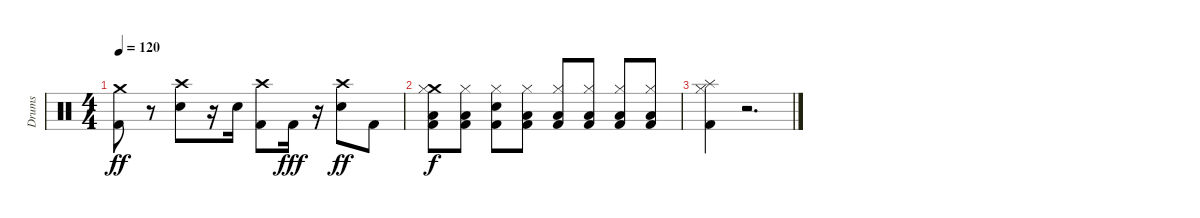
\track ("Drums" "Drums") {instrument percussion}
\staff {score}
\articulation defaults
\ts (4 4)
\tempo 120
\clef neutral
\ks c
("Crash medium (hit)" "Kick (hit) 2").8{dy ff} r.8 ("Crash high (hit)" "Snare (hit) 2").8 r.16 "Snare (hit) 2".16 ("Crash high (hit)" "Kick (hit) 2").8 "Kick (hit) 2".16{dy fff} r.16 ("Crash high (hit)" "Snare (hit) 2").8{dy ff} "Kick (hit) 2".8 |
("Crash medium (hit)" "Hi-Hat (closed)" "Low Floor Tom (hit)" "Kick (hit) 2").8{dy f} ("Hi-Hat (closed)" "Low Floor Tom (hit)" "Kick (hit) 2").8 ("Hi-Hat (closed)" "Snare (hit)" "Kick (hit) 2").8 ("Hi-Hat (closed)" "Low Floor Tom (hit)" "Kick (hit) 2").8 ("Hi-Hat (closed)" "Low Floor Tom (hit)" "Kick (hit) 2").8 ("Hi-Hat (closed)" "Low Floor Tom (hit)" "Kick (hit) 2").8 ("Hi-Hat (closed)" "Low Floor Tom (hit)" "Kick (hit) 2").8 ("Hi-Hat (closed)" "Low Floor Tom (hit)" "Kick (hit) 2").8 |
("Splash (hit)" "Hi-Hat (closed)" "Kick (hit) 2").4 r.2{d}
